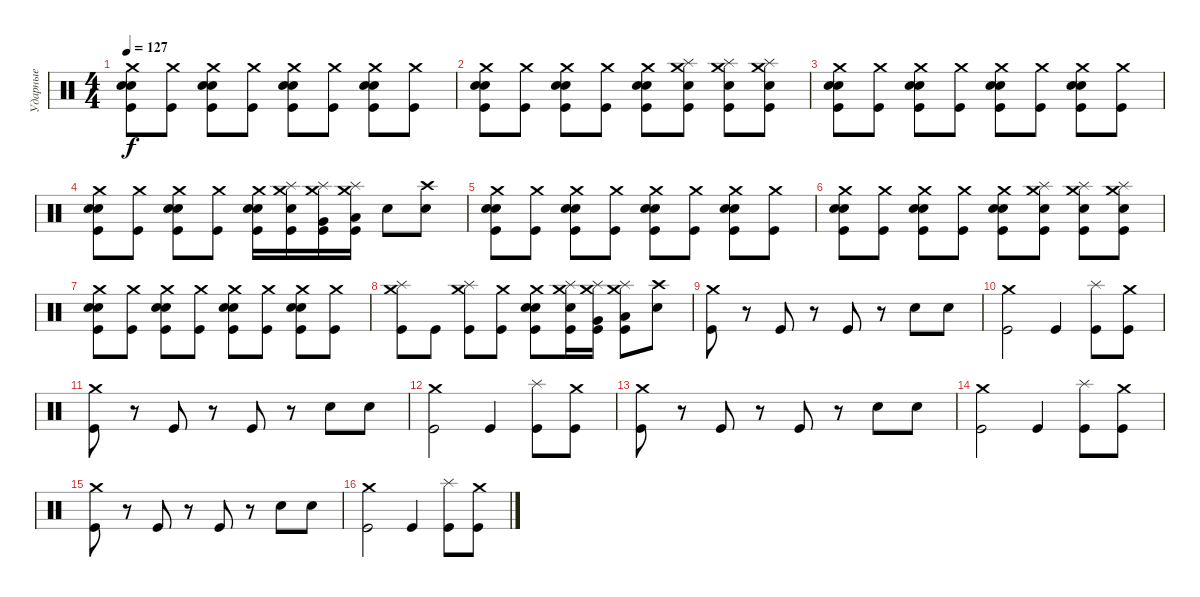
\track ("Ударные" "Ударные") {instrument percussion}
\staff {score}
\articulation defaults
\ts (4 4)
\tempo 127
\clef neutral
\ks c
("Crash medium (hit)" "Snare (hit) 2" "Snare (hit) 2" "Kick (hit)").8{dy f} ("Crash medium (hit)" "Kick (hit)").8 ("Crash medium (hit)" "Snare (hit) 2" "Snare (hit) 2" "Kick (hit)").8 ("Crash medium (hit)" "Kick (hit)").8 ("Crash medium (hit)" "Snare (hit) 2" "Snare (hit) 2" "Kick (hit)").8 ("Crash medium (hit)" "Kick (hit)").8 ("Crash medium (hit)" "Snare (hit) 2" "Snare (hit) 2" "Kick (hit)").8 ("Crash medium (hit)" "Kick (hit)").8 |
("Crash medium (hit)" "Snare (hit) 2" "Snare (hit) 2" "Kick (hit)").8 ("Crash medium (hit)" "Kick (hit)").8 ("Crash medium (hit)" "Snare (hit) 2" "Snare (hit) 2" "Kick (hit)").8 ("Crash medium (hit)" "Kick (hit)").8 ("Crash medium (hit)" "Snare (hit) 2" "Snare (hit) 2" "Kick (hit)").8 ("Crash medium (hit)" "Electric Snare (hit)" "Splash (hit)" "Kick (hit)").8 ("Crash medium (hit)" "Electric Snare (hit)" "Splash (hit)" "Kick (hit)").8 ("Crash medium (hit)" "Electric Snare (hit)" "Splash (hit)" "Kick (hit)").8 |
("Crash medium (hit)" "Snare (hit) 2" "Snare (hit) 2" "Kick (hit)").8 ("Crash medium (hit)" "Kick (hit)").8 ("Crash medium (hit)" "Snare (hit) 2" "Snare (hit) 2" "Kick (hit)").8 ("Crash medium (hit)" "Kick (hit)").8 ("Crash medium (hit)" "Snare (hit) 2" "Snare (hit) 2" "Kick (hit)").8 ("Crash medium (hit)" "Kick (hit)").8 ("Crash medium (hit)" "Snare (hit) 2" "Snare (hit) 2" "Kick (hit)").8 ("Crash medium (hit)" "Kick (hit)").8 |
("Crash medium (hit)" "Snare (hit) 2" "Snare (hit) 2" "Kick (hit)").8 ("Crash medium (hit)" "Kick (hit)").8 ("Crash medium (hit)" "Snare (hit) 2" "Snare (hit) 2" "Kick (hit)").8 ("Crash medium (hit)" "Kick (hit)").8 ("Crash medium (hit)" "Snare (hit) 2" "Snare (hit) 2" "Kick (hit)").16 ("Crash medium (hit)" "Electric Snare (hit)" "Splash (hit)" "Kick (hit)").16 ("Crash medium (hit)" "Very Low Tom (hit)" "Splash (hit)" "Kick (hit)").16 ("Crash medium (hit)" "Low Floor Tom (hit)" "Splash (hit)" "Kick (hit)").16 "Electric Snare (hit)".8 ("Crash high (hit)" "Snare (hit) 2").8 |
("Crash medium (hit)" "Snare (hit) 2" "Snare (hit) 2" "Kick (hit)").8 ("Crash medium (hit)" "Kick (hit)").8 ("Crash medium (hit)" "Snare (hit) 2" "Snare (hit) 2" "Kick (hit)").8 ("Crash medium (hit)" "Kick (hit)").8 ("Crash medium (hit)" "Snare (hit) 2" "Snare (hit) 2" "Kick (hit)").8 ("Crash medium (hit)" "Kick (hit)").8 ("Crash medium (hit)" "Snare (hit) 2" "Snare (hit) 2" "Kick (hit)").8 ("Crash medium (hit)" "Kick (hit)").8 |
("Crash medium (hit)" "Snare (hit) 2" "Snare (hit) 2" "Kick (hit)").8 ("Crash medium (hit)" "Kick (hit)").8 ("Crash medium (hit)" "Snare (hit) 2" "Snare (hit) 2" "Kick (hit)").8 ("Crash medium (hit)" "Kick (hit)").8 ("Crash medium (hit)" "Snare (hit) 2" "Snare (hit) 2" "Kick (hit)").8 ("Crash medium (hit)" "Electric Snare (hit)" "Splash (hit)" "Kick (hit)").8 ("Crash medium (hit)" "Electric Snare (hit)" "Splash (hit)" "Kick (hit)").8 ("Crash medium (hit)" "Electric Snare (hit)" "Splash (hit)" "Kick (hit)").8 |
("Crash medium (hit)" "Snare (hit) 2" "Snare (hit) 2" "Kick (hit)").8 ("Crash medium (hit)" "Kick (hit)").8 ("Crash medium (hit)" "Snare (hit) 2" "Snare (hit) 2" "Kick (hit)").8 ("Crash medium (hit)" "Kick (hit)").8 ("Crash medium (hit)" "Snare (hit) 2" "Snare (hit) 2" "Kick (hit)").8 ("Crash medium (hit)" "Kick (hit)").8 ("Crash medium (hit)" "Snare (hit) 2" "Snare (hit) 2" "Kick (hit)").8 ("Crash medium (hit)" "Kick (hit)").8 |
("Crash medium (hit)" "Splash (hit)" "Kick (hit)").8 "Kick (hit)".8 ("Crash medium (hit)" "Splash (hit)" "Kick (hit)").8 ("Crash medium (hit)" "Kick (hit)").8 ("Crash medium (hit)" "Snare (hit) 2" "Snare (hit) 2" "Kick (hit)").8 ("Crash medium (hit)" "Electric Snare (hit)" "Splash (hit)" "Kick (hit)").16 ("Crash medium (hit)" "Very Low Tom (hit)" "Splash (hit)" "Kick (hit)").16 ("Crash medium (hit)" "Low Floor Tom (hit)" "Splash (hit)" "Kick (hit)").8 ("Crash high (hit)" "Electric Snare (hit)").8 |
("Crash medium (hit)" "Kick (hit)").8 r.8 "Kick (hit)".8 r.8 "Kick (hit)".8 r.8 "Electric Snare (hit)".8 "Snare (hit) 2".8 |
("Crash medium (hit)" "Kick (hit)").2 "Kick (hit)".4 ("Splash (hit)" "Kick (hit)").8 ("Crash medium (hit)" "Kick (hit)").8 |
("Crash medium (hit)" "Kick (hit)").8 r.8 "Kick (hit)".8 r.8 "Kick (hit)".8 r.8 "Electric Snare (hit)".8 "Snare (hit) 2".8 |
("Crash medium (hit)" "Kick (hit)").2 "Kick (hit)".4 ("Splash (hit)" "Kick (hit)").8 ("Crash medium (hit)" "Kick (hit)").8 |
("Crash medium (hit)" "Kick (hit)").8 r.8 "Kick (hit)".8 r.8 "Kick (hit)".8 r.8 "Electric Snare (hit)".8 "Snare (hit) 2".8 |
("Crash medium (hit)" "Kick (hit)").2 "Kick (hit)".4 ("Splash (hit)" "Kick (hit)").8 ("Crash medium (hit)" "Kick (hit)").8 |
("Crash medium (hit)" "Kick (hit)").8 r.8 "Kick (hit)".8 r.8 "Kick (hit)".8 r.8 "Electric Snare (hit)".8 "Snare (hit) 2".8 |
("Crash medium (hit)" "Kick (hit)").2 "Kick (hit)".4 ("Splash (hit)" "Kick (hit)").8 ("Crash medium (hit)" "Kick (hit)").8
